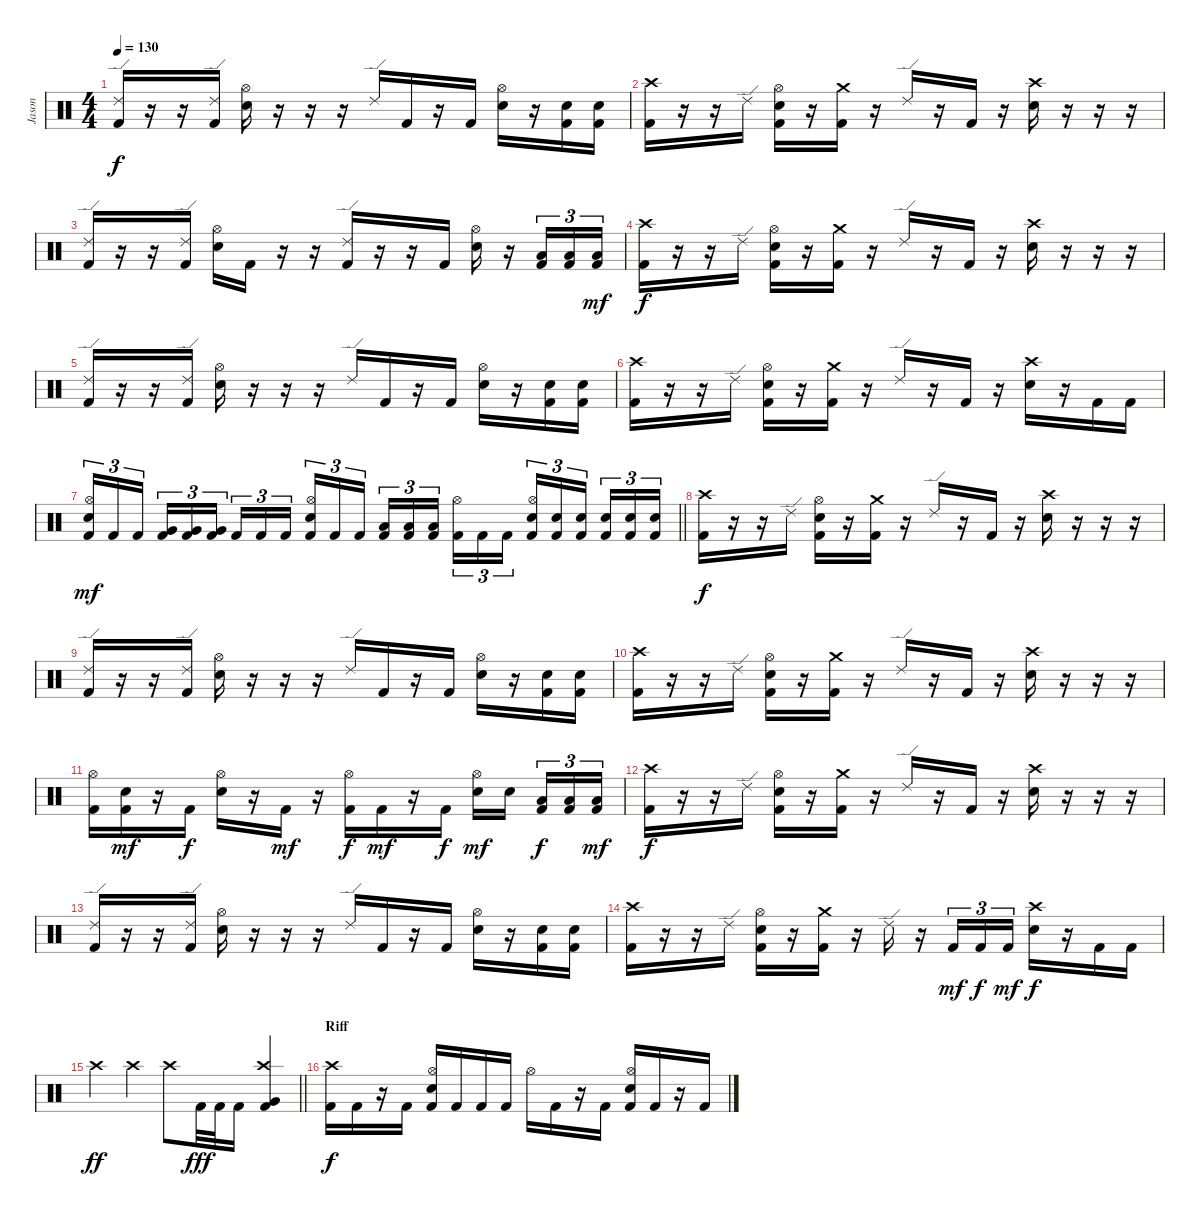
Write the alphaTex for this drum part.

\track ("Jason" "Jason") {instrument percussion}
\staff {score}
\articulation defaults
\ts (4 4)
\tempo 130
\clef neutral
\ks c
("Ride (edge) 2" "Kick (hit) 2").16{dy f} r.16 r.16 ("Ride (edge) 2" "Kick (hit) 2").16 ("Hi-Hat (open)" "Electric Snare (hit)").16 r.16 r.16 r.16 "Ride (edge) 2".16 "Kick (hit) 2".16 r.16 "Kick (hit) 2".16 ("Hi-Hat (open)" "Electric Snare (hit)").16 r.16 ("Electric Snare (hit)" "Kick (hit) 2").16 ("Electric Snare (hit)" "Kick (hit) 2").16 |
("Crash high (hit)" "Kick (hit) 2").16 r.16 r.16 "Ride (edge) 2".16 ("Hi-Hat (open)" "Electric Snare (hit)" "Kick (hit) 2").16 r.16 ("Crash medium (hit)" "Kick (hit) 2").16 r.16 "Ride (edge) 2".16 r.16 "Kick (hit) 2".16 r.16 ("Crash high (hit)" "Electric Snare (hit)").16 r.16 r.16 r.16 |
("Ride (edge) 2" "Kick (hit) 2").16 r.16 r.16 ("Ride (edge) 2" "Kick (hit) 2").16 ("Hi-Hat (open)" "Electric Snare (hit)").16 "Kick (hit) 2".16 r.16 r.16 ("Ride (edge) 2" "Kick (hit) 2").16 r.16 r.16 "Kick (hit) 2".16 ("Hi-Hat (open)" "Electric Snare (hit)").16 r.16 ("Low Tom (hit)" "Kick (hit) 2").16{tu (3 2)} ("Low Tom (hit)" "Kick (hit) 2").16{tu (3 2)} ("Low Tom (hit)" "Kick (hit) 2").16{tu (3 2) dy mf} |
("Crash high (hit)" "Kick (hit) 2").16{dy f} r.16 r.16 "Ride (edge) 2".16 ("Hi-Hat (open)" "Electric Snare (hit)" "Kick (hit) 2").16 r.16 ("Crash medium (hit)" "Kick (hit) 2").16 r.16 "Ride (edge) 2".16 r.16 "Kick (hit) 2".16 r.16 ("Crash high (hit)" "Electric Snare (hit)").16 r.16 r.16 r.16 |
("Ride (edge) 2" "Kick (hit) 2").16 r.16 r.16 ("Ride (edge) 2" "Kick (hit) 2").16 ("Hi-Hat (open)" "Electric Snare (hit)").16 r.16 r.16 r.16 "Ride (edge) 2".16 "Kick (hit) 2".16 r.16 "Kick (hit) 2".16 ("Hi-Hat (open)" "Electric Snare (hit)").16 r.16 ("Electric Snare (hit)" "Kick (hit) 2").16 ("Electric Snare (hit)" "Kick (hit) 2").16 |
("Crash high (hit)" "Kick (hit) 2").16 r.16 r.16 "Ride (edge) 2".16 ("Hi-Hat (open)" "Electric Snare (hit)" "Kick (hit) 2").16 r.16 ("Crash medium (hit)" "Kick (hit) 2").16 r.16 "Ride (edge) 2".16 r.16 "Kick (hit) 2".16 r.16 ("Crash high (hit)" "Electric Snare (hit)").16 r.16 "Kick (hit) 2".16 "Kick (hit) 2".16 |
\barLineRight lightlight
("Hi-Hat (open)" "Electric Snare (hit)" "Kick (hit) 2").16{tu (3 2) dy mf} "Kick (hit) 2".16{tu (3 2)} "Kick (hit) 2".16{tu (3 2) beam splitsecondary} ("Very Low Tom (hit)" "Kick (hit) 2").16{tu (3 2)} ("Very Low Tom (hit)" "Kick (hit) 2").16{tu (3 2)} ("Very Low Tom (hit)" "Kick (hit) 2").16{tu (3 2)} "Kick (hit) 2".16{tu (3 2)} "Kick (hit) 2".16{tu (3 2)} "Kick (hit) 2".16{tu (3 2) beam splitsecondary} ("Hi-Hat (open)" "Electric Snare (hit)" "Kick (hit) 2").16{tu (3 2)} "Kick (hit) 2".16{tu (3 2)} "Kick (hit) 2".16{tu (3 2)} ("Low Floor Tom (hit)" "Kick (hit) 2").16{tu (3 2)} ("Low Floor Tom (hit)" "Kick (hit) 2").16{tu (3 2)} ("Low Floor Tom (hit)" "Kick (hit) 2").16{tu (3 2) beam splitsecondary} ("Hi-Hat (open)" "Kick (hit) 2").16{tu (3 2)} "Kick (hit) 2".16{tu (3 2)} "Kick (hit) 2".16{tu (3 2)} ("Hi-Hat (open)" "Electric Snare (hit)" "Kick (hit) 2").16{tu (3 2)} ("Electric Snare (hit)" "Kick (hit) 2").16{tu (3 2)} ("Electric Snare (hit)" "Kick (hit) 2").16{tu (3 2) beam splitsecondary} ("Electric Snare (hit)" "Kick (hit) 2").16{tu (3 2)} ("Electric Snare (hit)" "Kick (hit) 2").16{tu (3 2)} ("Electric Snare (hit)" "Kick (hit) 2").16{tu (3 2)} |
("Crash high (hit)" "Kick (hit) 2").16{dy f} r.16 r.16 "Ride (edge) 2".16 ("Hi-Hat (open)" "Electric Snare (hit)" "Kick (hit) 2").16 r.16 ("Crash medium (hit)" "Kick (hit) 2").16 r.16 "Ride (edge) 2".16 r.16 "Kick (hit) 2".16 r.16 ("Crash high (hit)" "Electric Snare (hit)").16 r.16 r.16 r.16 |
("Ride (edge) 2" "Kick (hit) 2").16 r.16 r.16 ("Ride (edge) 2" "Kick (hit) 2").16 ("Hi-Hat (open)" "Electric Snare (hit)").16 r.16 r.16 r.16 "Ride (edge) 2".16 "Kick (hit) 2".16 r.16 "Kick (hit) 2".16 ("Hi-Hat (open)" "Electric Snare (hit)").16 r.16 ("Electric Snare (hit)" "Kick (hit) 2").16 ("Electric Snare (hit)" "Kick (hit) 2").16 |
("Crash high (hit)" "Kick (hit) 2").16 r.16 r.16 "Ride (edge) 2".16 ("Hi-Hat (open)" "Electric Snare (hit)" "Kick (hit) 2").16 r.16 ("Crash medium (hit)" "Kick (hit) 2").16 r.16 "Ride (edge) 2".16 r.16 "Kick (hit) 2".16 r.16 ("Crash high (hit)" "Electric Snare (hit)").16 r.16 r.16 r.16 |
("Hi-Hat (open)" "Kick (hit) 2").16 ("Electric Snare (hit)" "Kick (hit) 2").16{dy mf} r.16 "Kick (hit) 2".16{dy f} ("Hi-Hat (open)" "Electric Snare (hit)").16 r.16 "Kick (hit) 2".16{dy mf} r.16 ("Hi-Hat (open)" "Kick (hit) 2").16{dy f} "Kick (hit) 2".16{dy mf} r.16 "Kick (hit) 2".16{dy f} ("Hi-Hat (open)" "Electric Snare (hit)").16{dy mf} "Electric Snare (hit)".16{beam splitsecondary} ("Low Tom (hit)" "Kick (hit) 2").16{tu (3 2) dy f} ("Low Tom (hit)" "Kick (hit) 2").16{tu (3 2)} ("Low Tom (hit)" "Kick (hit) 2").16{tu (3 2) dy mf} |
("Crash high (hit)" "Kick (hit) 2").16{dy f} r.16 r.16 "Ride (edge) 2".16 ("Hi-Hat (open)" "Electric Snare (hit)" "Kick (hit) 2").16 r.16 ("Crash medium (hit)" "Kick (hit) 2").16 r.16 "Ride (edge) 2".16 r.16 "Kick (hit) 2".16 r.16 ("Crash high (hit)" "Electric Snare (hit)").16 r.16 r.16 r.16 |
("Ride (edge) 2" "Kick (hit) 2").16 r.16 r.16 ("Ride (edge) 2" "Kick (hit) 2").16 ("Hi-Hat (open)" "Electric Snare (hit)").16 r.16 r.16 r.16 "Ride (edge) 2".16 "Kick (hit) 2".16 r.16 "Kick (hit) 2".16 ("Hi-Hat (open)" "Electric Snare (hit)").16 r.16 ("Electric Snare (hit)" "Kick (hit) 2").16 ("Electric Snare (hit)" "Kick (hit) 2").16 |
("Crash high (hit)" "Kick (hit) 2").16 r.16 r.16 "Ride (edge) 2".16 ("Hi-Hat (open)" "Electric Snare (hit)" "Kick (hit) 2").16 r.16 ("Crash medium (hit)" "Kick (hit) 2").16 r.16 "Ride (edge) 2".16 r.16 "Kick (hit) 2".16{tu (3 2) dy mf} "Kick (hit) 2".16{tu (3 2) dy f} "Kick (hit) 2".16{tu (3 2) dy mf} ("Crash high (hit)" "Electric Snare (hit)").16{dy f} r.16 "Kick (hit) 2".16 "Kick (hit) 2".16 |
\barLineRight lightlight "Crash high (hit)".4{dy ff} "Crash high (hit)".4 "Crash high (hit)".8 "Kick (hit) 2".32{dy fff} "Kick (hit) 2".32 "Kick (hit) 2".16
("Crash high (hit)" "Very Low Tom (hit)" "Kick (hit) 2").4 |
\section ("" "Riff")
("Crash high (hit)" "Kick (hit) 2").16{dy f} "Kick (hit) 2".16 r.16 "Kick (hit) 2".16 ("Hi-Hat (open)" "Electric Snare (hit)" "Kick (hit) 2").16 "Kick (hit) 2".16 "Kick (hit) 2".16 "Kick (hit) 2".16 "Hi-Hat (open)".16 "Kick (hit) 2".16 r.16 "Kick (hit) 2".16 ("Hi-Hat (open)" "Electric Snare (hit)" "Kick (hit) 2").16 "Kick (hit) 2".16 r.16 "Kick (hit) 2".16
